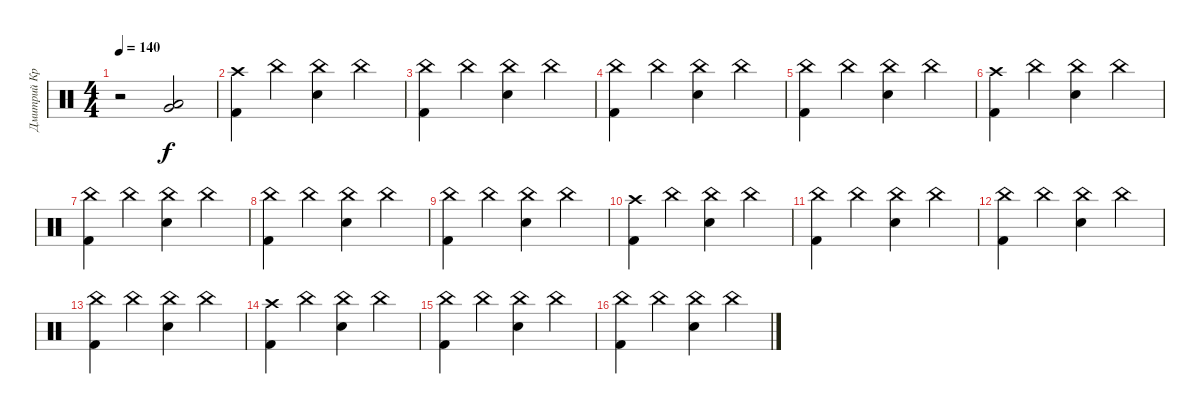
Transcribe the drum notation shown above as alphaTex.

\track ("Дмитрий Кривенков" "Дмитрий Кр") {instrument percussion}
\staff {score}
\articulation defaults
\ts (4 4)
\tempo 140
\clef neutral
\ks c
r.2{dy f} ("Very Low Tom (hit)" "Low Floor Tom (hit)").2 |
("Crash high (hit)" "Kick (hit) 2").4 "China (hit)".4 ("China (hit)" "Electric Snare (hit)").4 "China (hit)".4 |
("China (hit)" "Kick (hit) 2").4 "China (hit)".4 ("China (hit)" "Electric Snare (hit)").4 "China (hit)".4 |
("China (hit)" "Kick (hit) 2").4 "China (hit)".4 ("China (hit)" "Electric Snare (hit)").4 "China (hit)".4 |
("China (hit)" "Kick (hit) 2").4 "China (hit)".4 ("China (hit)" "Electric Snare (hit)").4 "China (hit)".4 |
("Crash high (hit)" "Kick (hit) 2").4 "China (hit)".4 ("China (hit)" "Electric Snare (hit)").4 "China (hit)".4 |
("China (hit)" "Kick (hit) 2").4 "China (hit)".4 ("China (hit)" "Electric Snare (hit)").4 "China (hit)".4 |
("China (hit)" "Kick (hit) 2").4 "China (hit)".4 ("China (hit)" "Electric Snare (hit)").4 "China (hit)".4 |
("China (hit)" "Kick (hit) 2").4 "China (hit)".4 ("China (hit)" "Electric Snare (hit)").4 "China (hit)".4 |
("Crash high (hit)" "Kick (hit) 2").4 "China (hit)".4 ("China (hit)" "Electric Snare (hit)").4 "China (hit)".4 |
("China (hit)" "Kick (hit) 2").4 "China (hit)".4 ("China (hit)" "Electric Snare (hit)").4 "China (hit)".4 |
("China (hit)" "Kick (hit) 2").4 "China (hit)".4 ("China (hit)" "Electric Snare (hit)").4 "China (hit)".4 |
("China (hit)" "Kick (hit) 2").4 "China (hit)".4 ("China (hit)" "Electric Snare (hit)").4 "China (hit)".4 |
("Crash high (hit)" "Kick (hit) 2").4 "China (hit)".4 ("China (hit)" "Electric Snare (hit)").4 "China (hit)".4 |
("China (hit)" "Kick (hit) 2").4 "China (hit)".4 ("China (hit)" "Electric Snare (hit)").4 "China (hit)".4 |
("China (hit)" "Kick (hit) 2").4 "China (hit)".4 ("China (hit)" "Electric Snare (hit)").4 "China (hit)".4
